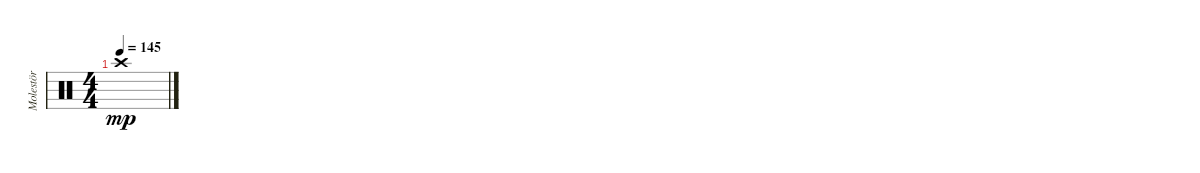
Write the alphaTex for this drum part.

\track ("Molestör" "Molestör") {instrument percussion}
\staff {score}
\articulation defaults
\ts (4 4)
\tempo 145
\clef neutral
\ks c "Crash high (hit)".1{dy mp}
